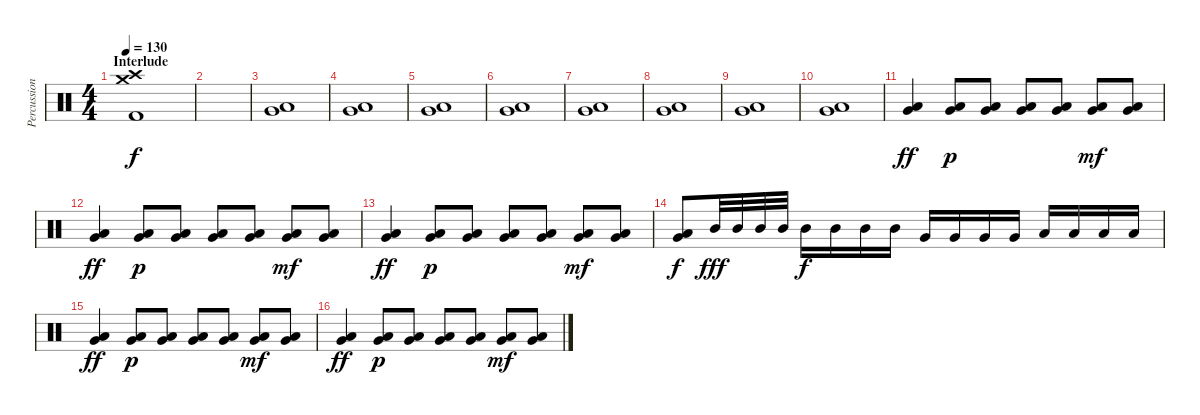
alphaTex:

\track ("Percussions" "Percussion") {instrument percussion}
\staff {score}
\articulation defaults
\ts (4 4)
\section ("" "Interlude")
\tempo 130
\clef neutral
\ks c
("Kick (hit) 2" "Crash medium (hit)" "Crash high (hit)").1{dy f} |
|
("Low Floor Tom (hit)" "Very Low Tom (hit)").1 |
("Low Floor Tom (hit)" "Very Low Tom (hit)").1 |
("Low Floor Tom (hit)" "Very Low Tom (hit)").1 |
("Low Floor Tom (hit)" "Very Low Tom (hit)").1 |
("Low Floor Tom (hit)" "Very Low Tom (hit)").1 |
("Low Floor Tom (hit)" "Very Low Tom (hit)").1 |
("Low Floor Tom (hit)" "Very Low Tom (hit)").1 |
("Low Floor Tom (hit)" "Very Low Tom (hit)").1 |
("Low Floor Tom (hit)" "Very Low Tom (hit)").4{dy ff} ("Low Floor Tom (hit)" "Very Low Tom (hit)").8{dy p} ("Low Floor Tom (hit)" "Very Low Tom (hit)").8 ("Low Floor Tom (hit)" "Very Low Tom (hit)").8 ("Low Floor Tom (hit)" "Very Low Tom (hit)").8 ("Low Floor Tom (hit)" "Very Low Tom (hit)").8{dy mf} ("Low Floor Tom (hit)" "Very Low Tom (hit)").8 |
("Low Floor Tom (hit)" "Very Low Tom (hit)").4{dy ff} ("Low Floor Tom (hit)" "Very Low Tom (hit)").8{dy p} ("Low Floor Tom (hit)" "Very Low Tom (hit)").8 ("Low Floor Tom (hit)" "Very Low Tom (hit)").8 ("Low Floor Tom (hit)" "Very Low Tom (hit)").8 ("Low Floor Tom (hit)" "Very Low Tom (hit)").8{dy mf} ("Low Floor Tom (hit)" "Very Low Tom (hit)").8 |
("Low Floor Tom (hit)" "Very Low Tom (hit)").4{dy ff} ("Low Floor Tom (hit)" "Very Low Tom (hit)").8{dy p} ("Low Floor Tom (hit)" "Very Low Tom (hit)").8 ("Low Floor Tom (hit)" "Very Low Tom (hit)").8 ("Low Floor Tom (hit)" "Very Low Tom (hit)").8 ("Low Floor Tom (hit)" "Very Low Tom (hit)").8{dy mf} ("Low Floor Tom (hit)" "Very Low Tom (hit)").8 |
("Low Floor Tom (hit)" "Very Low Tom (hit)").8{dy f} "Mid Tom (hit)".32{dy fff} "Mid Tom (hit)".32 "Mid Tom (hit)".32 "Mid Tom (hit)".32 "Mid Tom (hit)".16{dy f} "Mid Tom (hit)".16 "Mid Tom (hit)".16 "Mid Tom (hit)".16 "Very Low Tom (hit)".16 "Very Low Tom (hit)".16 "Very Low Tom (hit)".16 "Very Low Tom (hit)".16 "Low Floor Tom (hit)".16 "Low Floor Tom (hit)".16 "Low Floor Tom (hit)".16 "Low Floor Tom (hit)".16 |
("Low Floor Tom (hit)" "Very Low Tom (hit)").4{dy ff} ("Low Floor Tom (hit)" "Very Low Tom (hit)").8{dy p} ("Low Floor Tom (hit)" "Very Low Tom (hit)").8 ("Low Floor Tom (hit)" "Very Low Tom (hit)").8 ("Low Floor Tom (hit)" "Very Low Tom (hit)").8 ("Low Floor Tom (hit)" "Very Low Tom (hit)").8{dy mf} ("Low Floor Tom (hit)" "Very Low Tom (hit)").8 |
("Low Floor Tom (hit)" "Very Low Tom (hit)").4{dy ff} ("Low Floor Tom (hit)" "Very Low Tom (hit)").8{dy p} ("Low Floor Tom (hit)" "Very Low Tom (hit)").8 ("Low Floor Tom (hit)" "Very Low Tom (hit)").8 ("Low Floor Tom (hit)" "Very Low Tom (hit)").8 ("Low Floor Tom (hit)" "Very Low Tom (hit)").8{dy mf} ("Low Floor Tom (hit)" "Very Low Tom (hit)").8
